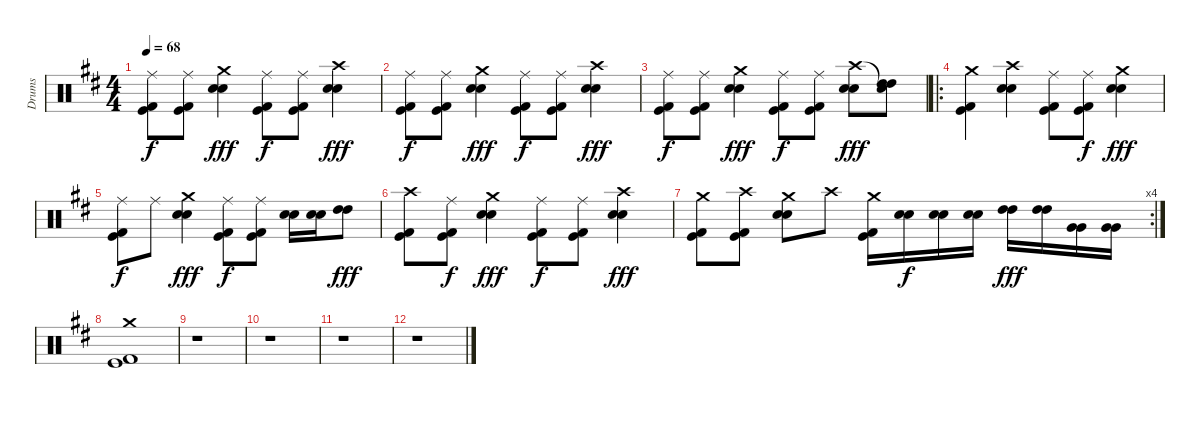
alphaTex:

\track ("Drums" "Drums") {instrument percussion}
\staff {score}
\articulation defaults
\ts (4 4)
\tempo 68
\clef neutral
\ks d
("Ride (middle)" "Kick (hit)" "Kick (hit) 2").8{dy f} ("Ride (middle)" "Kick (hit)" "Kick (hit) 2").8 ("Crash medium (hit)" "Electric Snare (hit)" "Snare (hit) 2").4{dy fff} ("Ride (middle)" "Kick (hit)" "Kick (hit) 2").8{dy f} ("Ride (middle)" "Kick (hit)" "Kick (hit) 2").8 ("Crash high (hit)" "Electric Snare (hit)" "Snare (hit) 2").4{dy fff} |
("Ride (middle)" "Kick (hit)" "Kick (hit) 2").8{dy f} ("Ride (middle)" "Kick (hit)" "Kick (hit) 2").8 ("Crash medium (hit)" "Electric Snare (hit)" "Snare (hit) 2").4{dy fff} ("Ride (middle)" "Kick (hit)" "Kick (hit) 2").8{dy f} ("Ride (middle)" "Kick (hit)" "Kick (hit) 2").8 ("Crash high (hit)" "Electric Snare (hit)" "Snare (hit) 2").4{dy fff} |
("Ride (middle)" "Kick (hit)" "Kick (hit) 2").8{dy f} ("Ride (middle)" "Kick (hit)" "Kick (hit) 2").8 ("Crash medium (hit)" "Electric Snare (hit)" "Snare (hit) 2").4{dy fff} ("Ride (middle)" "Kick (hit)" "Kick (hit) 2").8{dy f} ("Ride (middle)" "Kick (hit)" "Kick (hit) 2").8 ("Crash high (hit)" "Electric Snare (hit)" "Snare (hit) 2").8{dy fff} ("Snare (hit)"{t} "High Tom (hit)" "High Tom (hit)").8 |
\ro
("Crash medium (hit)" "Kick (hit)" "Kick (hit) 2").4 ("Crash high (hit)" "Electric Snare (hit)" "Snare (hit) 2").4 ("Ride (middle)" "Kick (hit)" "Kick (hit) 2").8 ("Ride (middle)" "Kick (hit)" "Kick (hit) 2").8{dy f} ("Crash medium (hit)" "Electric Snare (hit)" "Snare (hit) 2").4{dy fff} |
("Ride (middle)" "Kick (hit)" "Kick (hit) 2").8{dy f} "Ride (middle)".8 ("Crash medium (hit)" "Electric Snare (hit)" "Snare (hit) 2").4{dy fff} ("Ride (middle)" "Kick (hit)" "Kick (hit) 2").8{dy f} ("Ride (middle)" "Kick (hit)" "Kick (hit) 2").8 ("Electric Snare (hit)" "Snare (hit) 2").16 ("Electric Snare (hit)" "Snare (hit) 2").16 ("High Tom (hit)" "High Tom (hit)").8{dy fff} |
("Crash high (hit)" "Kick (hit)" "Kick (hit) 2").8 ("Ride (middle)" "Kick (hit)" "Kick (hit) 2").8{dy f} ("Crash medium (hit)" "Electric Snare (hit)" "Snare (hit) 2").4{dy fff} ("Ride (middle)" "Kick (hit)" "Kick (hit) 2").8{dy f} ("Ride (middle)" "Kick (hit)" "Kick (hit) 2").8 ("Crash high (hit)" "Electric Snare (hit)" "Snare (hit) 2").4{dy fff} |
\rc 4
("Crash medium (hit)" "Kick (hit)" "Kick (hit) 2").8 ("Crash high (hit)" "Kick (hit)" "Kick (hit) 2").8 ("Crash medium (hit)" "Electric Snare (hit)" "Snare (hit) 2").8 "Crash high (hit)".8 ("Crash medium (hit)" "Kick (hit)" "Kick (hit) 2").16 ("Electric Snare (hit)" "Snare (hit) 2").16{dy f} ("Electric Snare (hit)" "Snare (hit) 2").16 ("Electric Snare (hit)" "Snare (hit) 2").16 ("High Tom (hit)" "High Tom (hit)").16{dy fff} ("High Tom (hit)" "High Tom (hit)").16 ("Very Low Tom (hit)" "Very Low Tom (hit)").16 ("Very Low Tom (hit)" "Very Low Tom (hit)").16 |
("Crash medium (hit)" "Kick (hit)" "Kick (hit) 2").1 |
r.1 |
r.1 |
r.1 |
r.1
